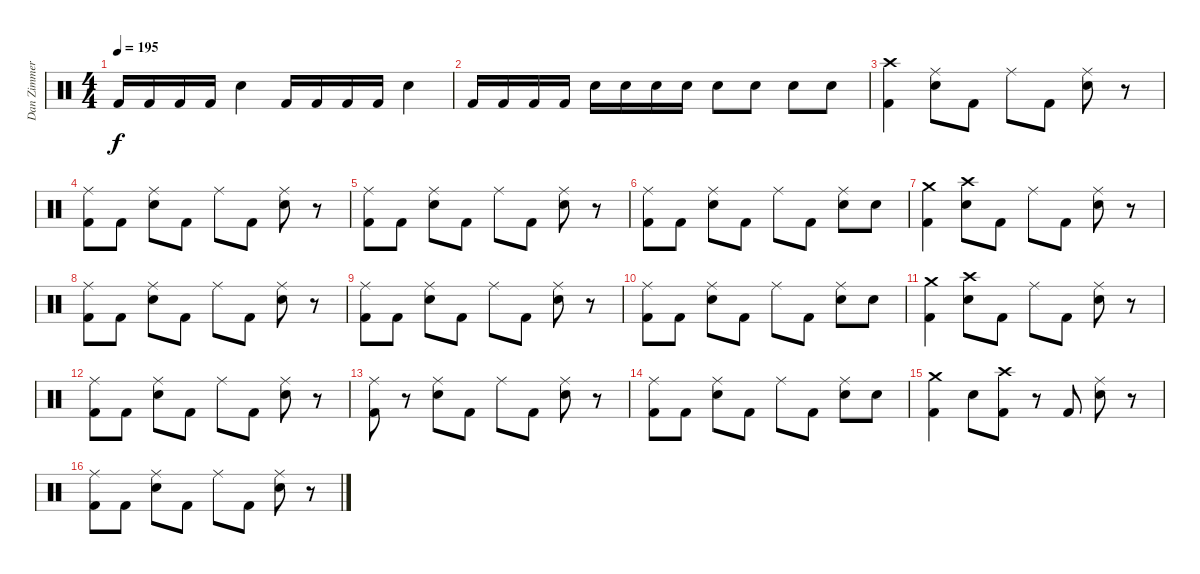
\track ("Dan Zimmermann" "Dan Zimmer") {instrument percussion}
\staff {score}
\articulation defaults
\ts (4 4)
\tempo 195
\clef neutral
\ks c "Kick (hit) 2".16{dy f} "Kick (hit) 2".16 "Kick (hit) 2".16 "Kick (hit) 2".16 "Electric Snare (hit)".4 "Kick (hit) 2".16 "Kick (hit) 2".16 "Kick (hit) 2".16 "Kick (hit) 2".16 "Electric Snare (hit)".4
|
"Kick (hit) 2".16 "Kick (hit) 2".16 "Kick (hit) 2".16 "Kick (hit) 2".16 "Electric Snare (hit)".16 "Electric Snare (hit)".16 "Electric Snare (hit)".16 "Electric Snare (hit)".16 "Electric Snare (hit)".8 "Electric Snare (hit)".8 "Electric Snare (hit)".8 "Electric Snare (hit)".8 |
("Crash high (hit)" "Kick (hit) 2").4 ("Ride (middle)" "Electric Snare (hit)").8 "Kick (hit) 2".8 "Ride (middle)".8 "Kick (hit) 2".8 ("Ride (middle)" "Electric Snare (hit)").8 r.8 |
("Ride (middle)" "Kick (hit) 2").8 "Kick (hit) 2".8 ("Ride (middle)" "Electric Snare (hit)").8 "Kick (hit) 2".8 "Ride (middle)".8 "Kick (hit) 2".8 ("Ride (middle)" "Electric Snare (hit)").8 r.8 |
("Ride (middle)" "Kick (hit) 2").8 "Kick (hit) 2".8 ("Ride (middle)" "Electric Snare (hit)").8 "Kick (hit) 2".8 "Ride (middle)".8 "Kick (hit) 2".8 ("Ride (middle)" "Electric Snare (hit)").8 r.8 |
("Ride (middle)" "Kick (hit) 2").8 "Kick (hit) 2".8 ("Ride (middle)" "Electric Snare (hit)").8 "Kick (hit) 2".8 "Ride (middle)".8 "Kick (hit) 2".8 ("Ride (middle)" "Electric Snare (hit)").8 "Electric Snare (hit)".8 |
("Crash medium (hit)" "Kick (hit) 2").4 ("Crash high (hit)" "Electric Snare (hit)").8 "Kick (hit) 2".8 "Ride (middle)".8 "Kick (hit) 2".8 ("Ride (middle)" "Electric Snare (hit)").8 r.8 |
("Ride (middle)" "Kick (hit) 2").8 "Kick (hit) 2".8 ("Ride (middle)" "Electric Snare (hit)").8 "Kick (hit) 2".8 "Ride (middle)".8 "Kick (hit) 2".8 ("Ride (middle)" "Electric Snare (hit)").8 r.8 |
("Ride (middle)" "Kick (hit) 2").8 "Kick (hit) 2".8 ("Ride (middle)" "Electric Snare (hit)").8 "Kick (hit) 2".8 "Ride (middle)".8 "Kick (hit) 2".8 ("Ride (middle)" "Electric Snare (hit)").8 r.8 |
("Ride (middle)" "Kick (hit) 2").8 "Kick (hit) 2".8 ("Ride (middle)" "Electric Snare (hit)").8 "Kick (hit) 2".8 "Ride (middle)".8 "Kick (hit) 2".8 ("Ride (middle)" "Electric Snare (hit)").8 "Electric Snare (hit)".8 |
("Crash medium (hit)" "Kick (hit) 2").4 ("Crash high (hit)" "Electric Snare (hit)").8 "Kick (hit) 2".8 "Ride (middle)".8 "Kick (hit) 2".8 ("Ride (middle)" "Electric Snare (hit)").8 r.8 |
("Ride (middle)" "Kick (hit) 2").8 "Kick (hit) 2".8 ("Ride (middle)" "Electric Snare (hit)").8 "Kick (hit) 2".8 "Ride (middle)".8 "Kick (hit) 2".8 ("Ride (middle)" "Electric Snare (hit)").8 r.8 |
("Ride (middle)" "Kick (hit) 2").8 r.8 ("Ride (middle)" "Electric Snare (hit)").8 "Kick (hit) 2".8 "Ride (middle)".8 "Kick (hit) 2".8 ("Ride (middle)" "Electric Snare (hit)").8 r.8 |
("Ride (middle)" "Kick (hit) 2").8 "Kick (hit) 2".8 ("Ride (middle)" "Electric Snare (hit)").8 "Kick (hit) 2".8 "Ride (middle)".8 "Kick (hit) 2".8 ("Ride (middle)" "Electric Snare (hit)").8 "Electric Snare (hit)".8 |
("Crash medium (hit)" "Kick (hit) 2").4 "Electric Snare (hit)".8 ("Crash high (hit)" "Kick (hit) 2").8 r.8 "Kick (hit) 2".8 ("Ride (middle)" "Electric Snare (hit)").8 r.8 |
("Ride (middle)" "Kick (hit) 2").8 "Kick (hit) 2".8 ("Ride (middle)" "Electric Snare (hit)").8 "Kick (hit) 2".8 "Ride (middle)".8 "Kick (hit) 2".8 ("Ride (middle)" "Electric Snare (hit)").8 r.8
